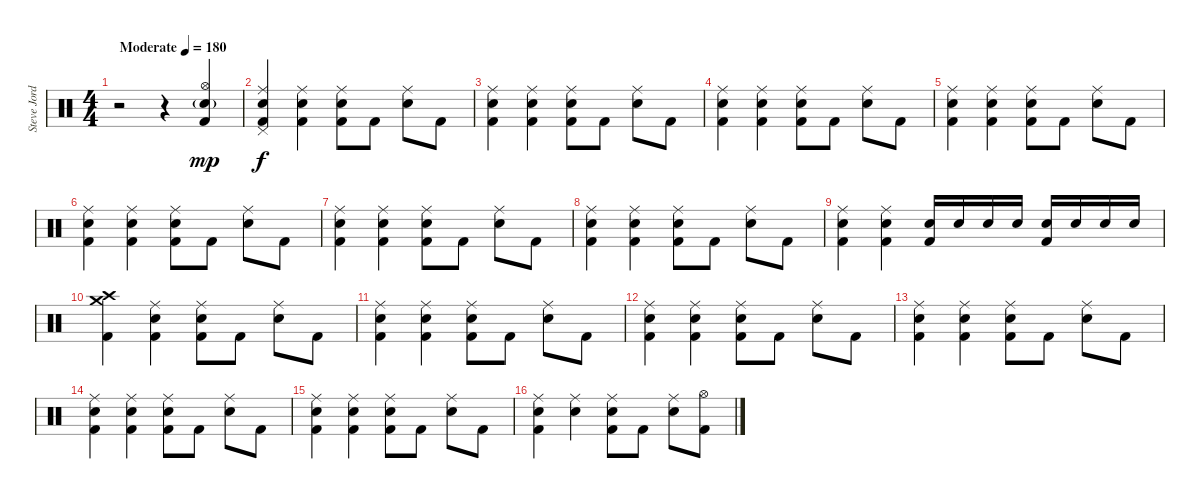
\track ("Steve Jordan - Drums" "Steve Jord") {instrument percussion}
\staff {score}
\articulation defaults
\ts (4 4)
\tempo (180 "Moderate")
\clef neutral
\ks c
r.2{dy mp} r.4 ("Snare (hit) 2"{g} "Hi-Hat (open)" "Kick (hit) 2").4 |
("Ride (middle)" "Snare (hit) 2" "Pedal Hi-Hat (hit)" "Kick (hit) 2").4{dy f} ("Ride (middle)" "Snare (hit) 2" "Kick (hit) 2").4 ("Ride (middle)" "Snare (hit) 2" "Kick (hit) 2").8 "Kick (hit) 2".8 ("Ride (middle)" "Snare (hit) 2").8 "Kick (hit) 2".8 |
("Ride (middle)" "Snare (hit) 2" "Kick (hit) 2").4 ("Ride (middle)" "Snare (hit) 2" "Kick (hit) 2").4 ("Ride (middle)" "Snare (hit) 2" "Kick (hit) 2").8 "Kick (hit) 2".8 ("Ride (middle)" "Snare (hit) 2").8 "Kick (hit) 2".8 |
("Ride (middle)" "Snare (hit) 2" "Kick (hit) 2").4 ("Ride (middle)" "Snare (hit) 2" "Kick (hit) 2").4 ("Ride (middle)" "Snare (hit) 2" "Kick (hit) 2").8 "Kick (hit) 2".8 ("Ride (middle)" "Snare (hit) 2").8 "Kick (hit) 2".8 |
("Ride (middle)" "Snare (hit) 2" "Kick (hit) 2").4 ("Ride (middle)" "Snare (hit) 2" "Kick (hit) 2").4 ("Ride (middle)" "Snare (hit) 2" "Kick (hit) 2").8 "Kick (hit) 2".8 ("Ride (middle)" "Snare (hit) 2").8 "Kick (hit) 2".8 |
("Ride (middle)" "Snare (hit) 2" "Kick (hit) 2").4 ("Ride (middle)" "Snare (hit) 2" "Kick (hit) 2").4 ("Ride (middle)" "Snare (hit) 2" "Kick (hit) 2").8 "Kick (hit) 2".8 ("Ride (middle)" "Snare (hit) 2").8 "Kick (hit) 2".8 |
("Ride (middle)" "Snare (hit) 2" "Kick (hit) 2").4 ("Ride (middle)" "Snare (hit) 2" "Kick (hit) 2").4 ("Ride (middle)" "Snare (hit) 2" "Kick (hit) 2").8 "Kick (hit) 2".8 ("Ride (middle)" "Snare (hit) 2").8 "Kick (hit) 2".8 |
("Ride (middle)" "Snare (hit) 2" "Kick (hit) 2").4 ("Ride (middle)" "Snare (hit) 2" "Kick (hit) 2").4 ("Ride (middle)" "Snare (hit) 2" "Kick (hit) 2").8 "Kick (hit) 2".8 ("Ride (middle)" "Snare (hit) 2").8 "Kick (hit) 2".8 |
("Ride (middle)" "Snare (hit) 2" "Kick (hit) 2").4 ("Ride (middle)" "Snare (hit) 2" "Kick (hit) 2").4 ("Snare (hit) 2" "Kick (hit) 2").16 "Snare (hit) 2".16 "Snare (hit) 2".16 "Snare (hit) 2".16 ("Snare (hit) 2" "Kick (hit) 2").16 "Snare (hit) 2".16 "Snare (hit) 2".16 "Snare (hit) 2".16 |
("Crash medium (hit)" "Crash high (hit)" "Kick (hit) 2").4 ("Ride (middle)" "Snare (hit) 2" "Kick (hit) 2").4 ("Ride (middle)" "Snare (hit) 2" "Kick (hit) 2").8 "Kick (hit) 2".8 ("Ride (middle)" "Snare (hit) 2").8 "Kick (hit) 2".8 |
("Ride (middle)" "Snare (hit) 2" "Kick (hit) 2").4 ("Ride (middle)" "Snare (hit) 2" "Kick (hit) 2").4 ("Ride (middle)" "Snare (hit) 2" "Kick (hit) 2").8 "Kick (hit) 2".8 ("Ride (middle)" "Snare (hit) 2").8 "Kick (hit) 2".8 |
("Ride (middle)" "Snare (hit) 2" "Kick (hit) 2").4 ("Ride (middle)" "Snare (hit) 2" "Kick (hit) 2").4 ("Ride (middle)" "Snare (hit) 2" "Kick (hit) 2").8 "Kick (hit) 2".8 ("Ride (middle)" "Snare (hit) 2").8 "Kick (hit) 2".8 |
("Ride (middle)" "Snare (hit) 2" "Kick (hit) 2").4 ("Ride (middle)" "Snare (hit) 2" "Kick (hit) 2").4 ("Ride (middle)" "Snare (hit) 2" "Kick (hit) 2").8 "Kick (hit) 2".8 ("Ride (middle)" "Snare (hit) 2").8 "Kick (hit) 2".8 |
("Ride (middle)" "Snare (hit) 2" "Kick (hit) 2").4 ("Ride (middle)" "Snare (hit) 2" "Kick (hit) 2").4 ("Ride (middle)" "Snare (hit) 2" "Kick (hit) 2").8 "Kick (hit) 2".8 ("Ride (middle)" "Snare (hit) 2").8 "Kick (hit) 2".8 |
("Ride (middle)" "Snare (hit) 2" "Kick (hit) 2").4 ("Ride (middle)" "Snare (hit) 2" "Kick (hit) 2").4 ("Ride (middle)" "Snare (hit) 2" "Kick (hit) 2").8 "Kick (hit) 2".8 ("Ride (middle)" "Snare (hit) 2").8 "Kick (hit) 2".8 |
("Ride (middle)" "Snare (hit) 2" "Kick (hit) 2").4 ("Ride (middle)" "Snare (hit) 2").4 ("Ride (middle)" "Snare (hit) 2" "Kick (hit) 2").8 "Kick (hit) 2".8 ("Ride (middle)" "Snare (hit) 2").8 ("Hi-Hat (open)" "Kick (hit) 2").8
